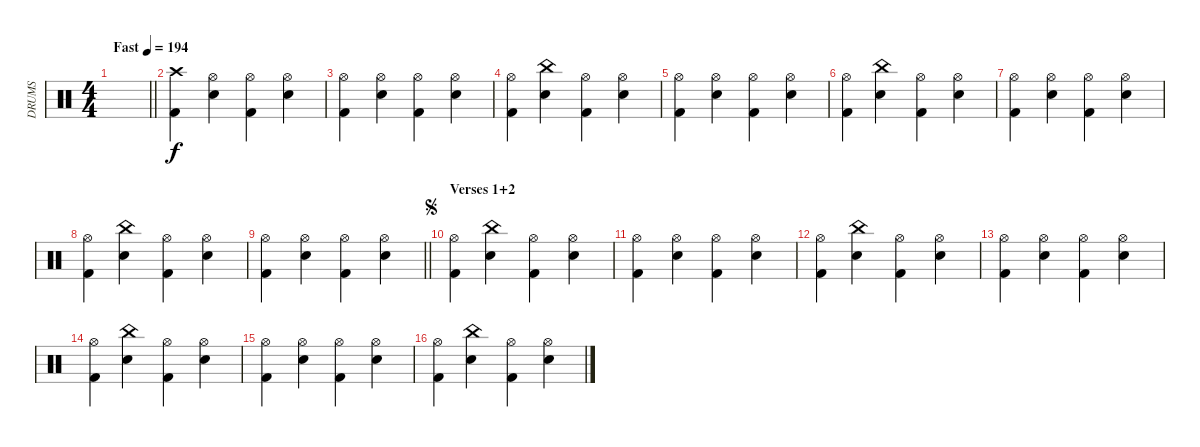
\track ("DRUMS" "DRUMS") {instrument percussion}
\staff {score}
\articulation defaults
\ts (4 4)
\tempo (194 "Fast")
\clef neutral
\barLineRight lightlight
\ks c
|
("Crash high (hit)" "Kick (hit) 2").4 ("Hi-Hat (open)" "Snare (hit) 2").4 ("Hi-Hat (open)" "Kick (hit) 2").4 ("Hi-Hat (open)" "Snare (hit) 2").4 |
("Hi-Hat (open)" "Kick (hit) 2").4 ("Hi-Hat (open)" "Snare (hit) 2").4 ("Hi-Hat (open)" "Kick (hit) 2").4 ("Hi-Hat (open)" "Snare (hit) 2").4 |
("Hi-Hat (open)" "Kick (hit) 2").4 ("China (hit)" "Snare (hit) 2").4 ("Hi-Hat (open)" "Kick (hit) 2").4 ("Hi-Hat (open)" "Snare (hit) 2").4 |
("Hi-Hat (open)" "Kick (hit) 2").4 ("Hi-Hat (open)" "Snare (hit) 2").4 ("Hi-Hat (open)" "Kick (hit) 2").4 ("Hi-Hat (open)" "Snare (hit) 2").4 |
("Hi-Hat (open)" "Kick (hit) 2").4 ("China (hit)" "Snare (hit) 2").4 ("Hi-Hat (open)" "Kick (hit) 2").4 ("Hi-Hat (open)" "Snare (hit) 2").4 |
("Hi-Hat (open)" "Kick (hit) 2").4 ("Hi-Hat (open)" "Snare (hit) 2").4 ("Hi-Hat (open)" "Kick (hit) 2").4 ("Hi-Hat (open)" "Snare (hit) 2").4 |
("Hi-Hat (open)" "Kick (hit) 2").4 ("China (hit)" "Snare (hit) 2").4 ("Hi-Hat (open)" "Kick (hit) 2").4 ("Hi-Hat (open)" "Snare (hit) 2").4 |
\barLineRight lightlight
("Hi-Hat (open)" "Kick (hit) 2").4 ("Hi-Hat (open)" "Snare (hit) 2").4 ("Hi-Hat (open)" "Kick (hit) 2").4 ("Hi-Hat (open)" "Snare (hit) 2").4 |
\section ("" "Verses 1+2")
\jump segno
("Hi-Hat (open)" "Kick (hit) 2").4 ("China (hit)" "Snare (hit) 2").4 ("Hi-Hat (open)" "Kick (hit) 2").4 ("Hi-Hat (open)" "Snare (hit) 2").4 |
("Hi-Hat (open)" "Kick (hit) 2").4 ("Hi-Hat (open)" "Snare (hit) 2").4 ("Hi-Hat (open)" "Kick (hit) 2").4 ("Hi-Hat (open)" "Snare (hit) 2").4 |
("Hi-Hat (open)" "Kick (hit) 2").4 ("China (hit)" "Snare (hit) 2").4 ("Hi-Hat (open)" "Kick (hit) 2").4 ("Hi-Hat (open)" "Snare (hit) 2").4 |
("Hi-Hat (open)" "Kick (hit) 2").4 ("Hi-Hat (open)" "Snare (hit) 2").4 ("Hi-Hat (open)" "Kick (hit) 2").4 ("Hi-Hat (open)" "Snare (hit) 2").4 |
("Hi-Hat (open)" "Kick (hit) 2").4 ("China (hit)" "Snare (hit) 2").4 ("Hi-Hat (open)" "Kick (hit) 2").4 ("Hi-Hat (open)" "Snare (hit) 2").4 |
("Hi-Hat (open)" "Kick (hit) 2").4 ("Hi-Hat (open)" "Snare (hit) 2").4 ("Hi-Hat (open)" "Kick (hit) 2").4 ("Hi-Hat (open)" "Snare (hit) 2").4 |
("Hi-Hat (open)" "Kick (hit) 2").4 ("China (hit)" "Snare (hit) 2").4 ("Hi-Hat (open)" "Kick (hit) 2").4 ("Hi-Hat (open)" "Snare (hit) 2").4
